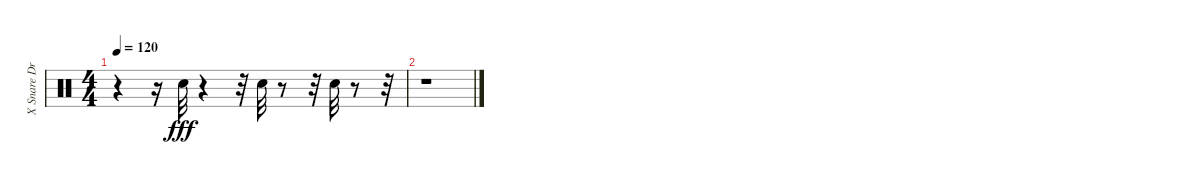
\track ("X Snare Drum        " "X Snare Dr") {instrument percussion}
\staff {score}
\articulation defaults
\ts (4 4)
\tempo 120
\clef neutral
\ks c
r.4{dy fff} r.16 "Snare (hit) 2".32 r.4 r.32 "Snare (hit) 2".32 r.8 r.32 "Snare (hit) 2".32 r.8 r.32 |
r.1
